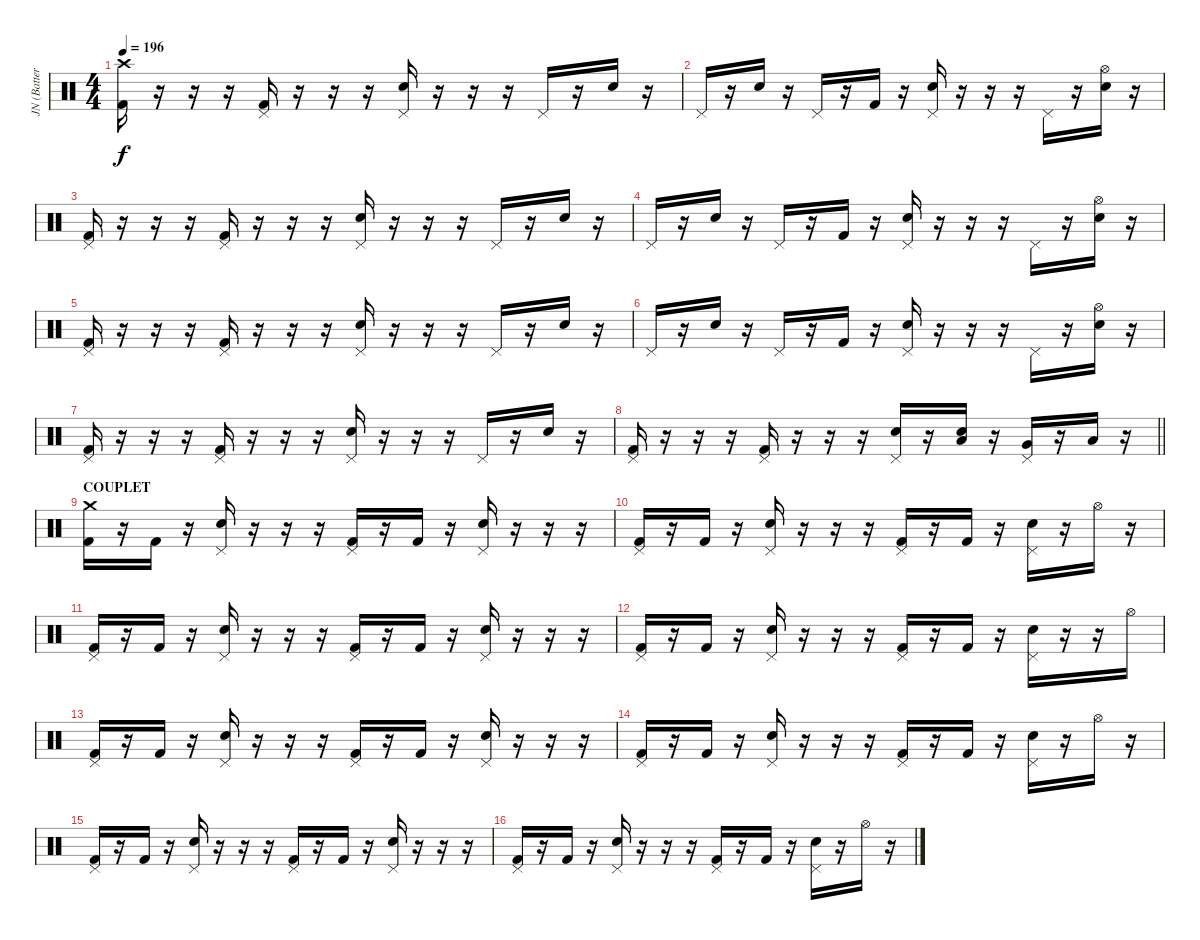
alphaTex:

\track ("JN (Batterie)" "JN (Batter") {instrument percussion}
\staff {score}
\articulation defaults
\ts (4 4)
\tempo 196
\clef neutral
\ks c
("Crash high (hit)" "Kick (hit) 2").16{dy f} r.16 r.16 r.16 ("Pedal Hi-Hat (hit)" "Kick (hit) 2").16 r.16 r.16 r.16 ("Pedal Hi-Hat (hit)" "Electric Snare (hit)").16 r.16 r.16 r.16 "Pedal Hi-Hat (hit)".16 r.16 "Electric Snare (hit)".16 r.16 |
"Pedal Hi-Hat (hit)".16 r.16 "Electric Snare (hit)".16 r.16 "Pedal Hi-Hat (hit)".16 r.16 "Kick (hit) 2".16 r.16 ("Pedal Hi-Hat (hit)" "Electric Snare (hit)").16 r.16 r.16 r.16 "Pedal Hi-Hat (hit)".16 r.16 ("Hi-Hat (open)" "Electric Snare (hit)").16 r.16 |
("Pedal Hi-Hat (hit)" "Kick (hit) 2").16 r.16 r.16 r.16 ("Pedal Hi-Hat (hit)" "Kick (hit) 2").16 r.16 r.16 r.16 ("Pedal Hi-Hat (hit)" "Electric Snare (hit)").16 r.16 r.16 r.16 "Pedal Hi-Hat (hit)".16 r.16 "Electric Snare (hit)".16 r.16 |
"Pedal Hi-Hat (hit)".16 r.16 "Electric Snare (hit)".16 r.16 "Pedal Hi-Hat (hit)".16 r.16 "Kick (hit) 2".16 r.16 ("Pedal Hi-Hat (hit)" "Electric Snare (hit)").16 r.16 r.16 r.16 "Pedal Hi-Hat (hit)".16 r.16 ("Hi-Hat (open)" "Electric Snare (hit)").16 r.16 |
("Pedal Hi-Hat (hit)" "Kick (hit) 2").16 r.16 r.16 r.16 ("Pedal Hi-Hat (hit)" "Kick (hit) 2").16 r.16 r.16 r.16 ("Pedal Hi-Hat (hit)" "Electric Snare (hit)").16 r.16 r.16 r.16 "Pedal Hi-Hat (hit)".16 r.16 "Electric Snare (hit)".16 r.16 |
"Pedal Hi-Hat (hit)".16 r.16 "Electric Snare (hit)".16 r.16 "Pedal Hi-Hat (hit)".16 r.16 "Kick (hit) 2".16 r.16 ("Pedal Hi-Hat (hit)" "Electric Snare (hit)").16 r.16 r.16 r.16 "Pedal Hi-Hat (hit)".16 r.16 ("Hi-Hat (open)" "Electric Snare (hit)").16 r.16 |
("Pedal Hi-Hat (hit)" "Kick (hit) 2").16 r.16 r.16 r.16 ("Pedal Hi-Hat (hit)" "Kick (hit) 2").16 r.16 r.16 r.16 ("Pedal Hi-Hat (hit)" "Electric Snare (hit)").16 r.16 r.16 r.16 "Pedal Hi-Hat (hit)".16 r.16 "Electric Snare (hit)".16 r.16 |
\barLineRight lightlight
("Pedal Hi-Hat (hit)" "Kick (hit) 2").16 r.16 r.16 r.16 ("Pedal Hi-Hat (hit)" "Kick (hit) 2").16 r.16 r.16 r.16 ("Pedal Hi-Hat (hit)" "Electric Snare (hit)").16 r.16 ("Low Tom (hit)" "Electric Snare (hit)").16 r.16 ("Pedal Hi-Hat (hit)" "Very Low Tom (hit)").16 r.16 "Low Tom (hit)".16 r.16 |
\section ("" "COUPLET")
("Crash medium (hit)" "Kick (hit) 2").16 r.16 "Kick (hit) 2".16 r.16 ("Pedal Hi-Hat (hit)" "Electric Snare (hit)").16 r.16 r.16 r.16 ("Pedal Hi-Hat (hit)" "Kick (hit) 2").16 r.16 "Kick (hit) 2".16 r.16 ("Pedal Hi-Hat (hit)" "Electric Snare (hit)").16 r.16 r.16 r.16 |
("Pedal Hi-Hat (hit)" "Kick (hit) 2").16 r.16 "Kick (hit) 2".16 r.16 ("Pedal Hi-Hat (hit)" "Electric Snare (hit)").16 r.16 r.16 r.16 ("Pedal Hi-Hat (hit)" "Kick (hit) 2").16 r.16 "Kick (hit) 2".16 r.16 ("Pedal Hi-Hat (hit)" "Electric Snare (hit)").16 r.16 "Hi-Hat (open)".16 r.16 |
("Pedal Hi-Hat (hit)" "Kick (hit) 2").16 r.16 "Kick (hit) 2".16 r.16 ("Pedal Hi-Hat (hit)" "Electric Snare (hit)").16 r.16 r.16 r.16 ("Pedal Hi-Hat (hit)" "Kick (hit) 2").16 r.16 "Kick (hit) 2".16 r.16 ("Pedal Hi-Hat (hit)" "Electric Snare (hit)").16 r.16 r.16 r.16 |
("Pedal Hi-Hat (hit)" "Kick (hit) 2").16 r.16 "Kick (hit) 2".16 r.16 ("Pedal Hi-Hat (hit)" "Electric Snare (hit)").16 r.16 r.16 r.16 ("Pedal Hi-Hat (hit)" "Kick (hit) 2").16 r.16 "Kick (hit) 2".16 r.16 ("Pedal Hi-Hat (hit)" "Electric Snare (hit)").16 r.16 r.16 "Hi-Hat (open)".16 |
("Pedal Hi-Hat (hit)" "Kick (hit) 2").16 r.16 "Kick (hit) 2".16 r.16 ("Pedal Hi-Hat (hit)" "Electric Snare (hit)").16 r.16 r.16 r.16 ("Pedal Hi-Hat (hit)" "Kick (hit) 2").16 r.16 "Kick (hit) 2".16 r.16 ("Pedal Hi-Hat (hit)" "Electric Snare (hit)").16 r.16 r.16 r.16 |
("Pedal Hi-Hat (hit)" "Kick (hit) 2").16 r.16 "Kick (hit) 2".16 r.16 ("Pedal Hi-Hat (hit)" "Electric Snare (hit)").16 r.16 r.16 r.16 ("Pedal Hi-Hat (hit)" "Kick (hit) 2").16 r.16 "Kick (hit) 2".16 r.16 ("Pedal Hi-Hat (hit)" "Electric Snare (hit)").16 r.16 "Hi-Hat (open)".16 r.16 |
("Pedal Hi-Hat (hit)" "Kick (hit) 2").16 r.16 "Kick (hit) 2".16 r.16 ("Pedal Hi-Hat (hit)" "Electric Snare (hit)").16 r.16 r.16 r.16 ("Pedal Hi-Hat (hit)" "Kick (hit) 2").16 r.16 "Kick (hit) 2".16 r.16 ("Pedal Hi-Hat (hit)" "Electric Snare (hit)").16 r.16 r.16 r.16 |
("Pedal Hi-Hat (hit)" "Kick (hit) 2").16 r.16 "Kick (hit) 2".16 r.16 ("Pedal Hi-Hat (hit)" "Electric Snare (hit)").16 r.16 r.16 r.16 ("Pedal Hi-Hat (hit)" "Kick (hit) 2").16 r.16 "Kick (hit) 2".16 r.16 ("Pedal Hi-Hat (hit)" "Electric Snare (hit)").16 r.16 "Hi-Hat (open)".16 r.16
